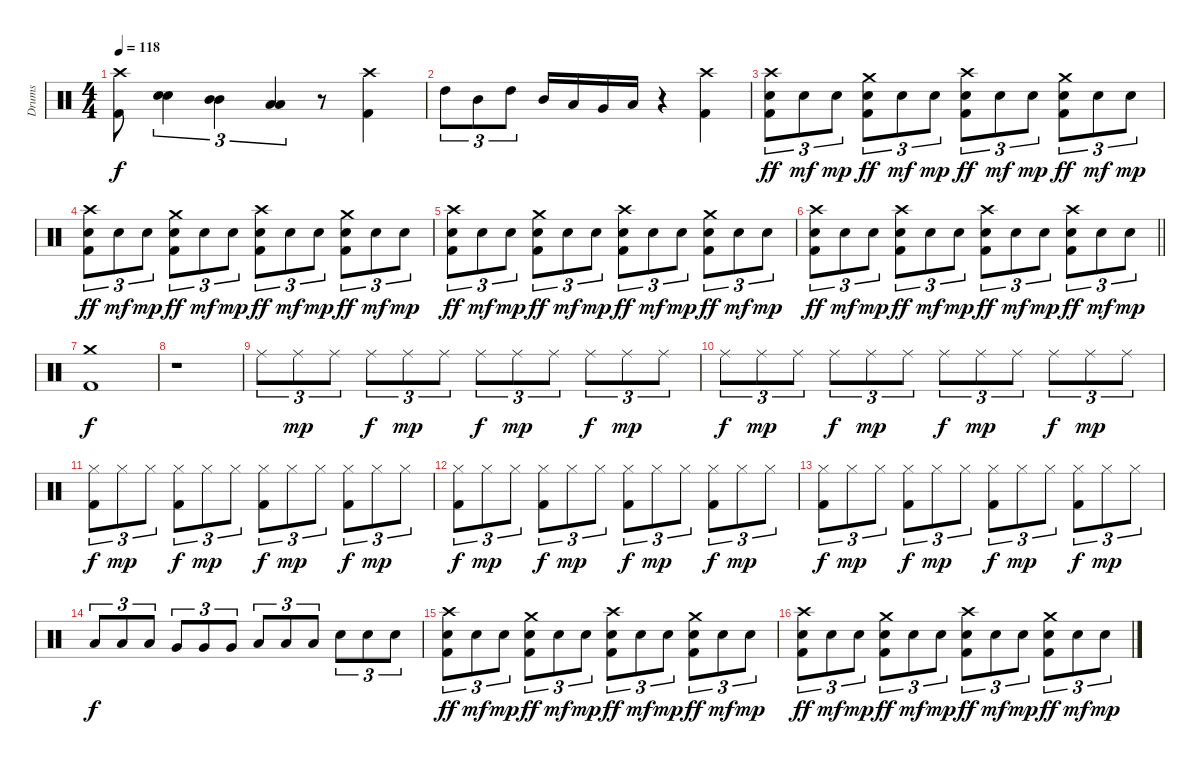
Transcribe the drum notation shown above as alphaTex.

\track ("Drums" "Drums") {instrument percussion}
\staff {score}
\articulation defaults
\ts (4 4)
\tempo 118
\clef neutral
\ks c
("Crash high (hit)" "Kick (hit) 2").8{dy f} ("Snare (hit) 2" "Snare (hit) 2").4{tu (3 2)} ("Mid Tom (hit)" "Mid Tom (hit)").4{tu (3 2)} ("Low Tom (hit)" "Low Tom (hit)").4{tu (3 2)} r.8 ("Crash high (hit)" "Kick (hit) 2").4 |
"High Tom (hit)".8{tu (3 2)} "Mid Tom (hit)".8{tu (3 2)} "High Tom (hit)".8{tu (3 2)} "Mid Tom (hit)".16 "Low Tom (hit)".16 "Very Low Tom (hit)".16 "Low Floor Tom (hit)".16 r.4 ("Crash high (hit)" "Kick (hit) 2").4 |
("Crash high (hit)" "Snare (hit) 2" "Kick (hit) 2").8{tu (3 2) dy ff} "Snare (hit) 2".8{tu (3 2) dy mf} "Snare (hit) 2".8{tu (3 2) dy mp} ("Crash medium (hit)" "Snare (hit) 2" "Kick (hit) 2").8{tu (3 2) dy ff} "Snare (hit) 2".8{tu (3 2) dy mf} "Snare (hit) 2".8{tu (3 2) dy mp} ("Crash high (hit)" "Snare (hit) 2" "Kick (hit) 2").8{tu (3 2) dy ff} "Snare (hit) 2".8{tu (3 2) dy mf} "Snare (hit) 2".8{tu (3 2) dy mp} ("Crash medium (hit)" "Snare (hit) 2" "Kick (hit) 2").8{tu (3 2) dy ff} "Snare (hit) 2".8{tu (3 2) dy mf} "Snare (hit) 2".8{tu (3 2) dy mp} |
("Crash high (hit)" "Snare (hit) 2" "Kick (hit) 2").8{tu (3 2) dy ff} "Snare (hit) 2".8{tu (3 2) dy mf} "Snare (hit) 2".8{tu (3 2) dy mp} ("Crash medium (hit)" "Snare (hit) 2" "Kick (hit) 2").8{tu (3 2) dy ff} "Snare (hit) 2".8{tu (3 2) dy mf} "Snare (hit) 2".8{tu (3 2) dy mp} ("Crash high (hit)" "Snare (hit) 2" "Kick (hit) 2").8{tu (3 2) dy ff} "Snare (hit) 2".8{tu (3 2) dy mf} "Snare (hit) 2".8{tu (3 2) dy mp} ("Crash medium (hit)" "Snare (hit) 2" "Kick (hit) 2").8{tu (3 2) dy ff} "Snare (hit) 2".8{tu (3 2) dy mf} "Snare (hit) 2".8{tu (3 2) dy mp} |
("Crash high (hit)" "Snare (hit) 2" "Kick (hit) 2").8{tu (3 2) dy ff} "Snare (hit) 2".8{tu (3 2) dy mf} "Snare (hit) 2".8{tu (3 2) dy mp} ("Crash medium (hit)" "Snare (hit) 2" "Kick (hit) 2").8{tu (3 2) dy ff} "Snare (hit) 2".8{tu (3 2) dy mf} "Snare (hit) 2".8{tu (3 2) dy mp} ("Crash high (hit)" "Snare (hit) 2" "Kick (hit) 2").8{tu (3 2) dy ff} "Snare (hit) 2".8{tu (3 2) dy mf} "Snare (hit) 2".8{tu (3 2) dy mp} ("Crash medium (hit)" "Snare (hit) 2" "Kick (hit) 2").8{tu (3 2) dy ff} "Snare (hit) 2".8{tu (3 2) dy mf} "Snare (hit) 2".8{tu (3 2) dy mp} |
\barLineRight lightlight
("Crash high (hit)" "Snare (hit) 2" "Kick (hit) 2").8{tu (3 2) dy ff} "Snare (hit) 2".8{tu (3 2) dy mf} "Snare (hit) 2".8{tu (3 2) dy mp} ("Crash high (hit)" "Snare (hit) 2" "Kick (hit) 2").8{tu (3 2) dy ff} "Snare (hit) 2".8{tu (3 2) dy mf} "Snare (hit) 2".8{tu (3 2) dy mp} ("Crash high (hit)" "Snare (hit) 2" "Kick (hit) 2").8{tu (3 2) dy ff} "Snare (hit) 2".8{tu (3 2) dy mf} "Snare (hit) 2".8{tu (3 2) dy mp} ("Crash high (hit)" "Snare (hit) 2" "Kick (hit) 2").8{tu (3 2) dy ff} "Snare (hit) 2".8{tu (3 2) dy mf} "Snare (hit) 2".8{tu (3 2) dy mp} |
("Crash medium (hit)" "Kick (hit) 2").1{dy f} |
r.1 |
"Ride (middle)".8{tu (3 2)} "Ride (middle)".8{tu (3 2) dy mp} "Ride (middle)".8{tu (3 2)} "Ride (middle)".8{tu (3 2) dy f} "Ride (middle)".8{tu (3 2) dy mp} "Ride (middle)".8{tu (3 2)} "Ride (middle)".8{tu (3 2) dy f} "Ride (middle)".8{tu (3 2) dy mp} "Ride (middle)".8{tu (3 2)} "Ride (middle)".8{tu (3 2) dy f} "Ride (middle)".8{tu (3 2) dy mp} "Ride (middle)".8{tu (3 2)} |
"Ride (middle)".8{tu (3 2) dy f} "Ride (middle)".8{tu (3 2) dy mp} "Ride (middle)".8{tu (3 2)} "Ride (middle)".8{tu (3 2) dy f} "Ride (middle)".8{tu (3 2) dy mp} "Ride (middle)".8{tu (3 2)} "Ride (middle)".8{tu (3 2) dy f} "Ride (middle)".8{tu (3 2) dy mp} "Ride (middle)".8{tu (3 2)} "Ride (middle)".8{tu (3 2) dy f} "Ride (middle)".8{tu (3 2) dy mp} "Ride (middle)".8{tu (3 2)} |
("Hi-Hat (closed)" "Kick (hit) 2").8{tu (3 2) dy f} "Hi-Hat (closed)".8{tu (3 2) dy mp} "Hi-Hat (closed)".8{tu (3 2)} ("Hi-Hat (closed)" "Kick (hit) 2").8{tu (3 2) dy f} "Hi-Hat (closed)".8{tu (3 2) dy mp} "Hi-Hat (closed)".8{tu (3 2)} ("Hi-Hat (closed)" "Kick (hit) 2").8{tu (3 2) dy f} "Hi-Hat (closed)".8{tu (3 2) dy mp} "Hi-Hat (closed)".8{tu (3 2)} ("Hi-Hat (closed)" "Kick (hit) 2").8{tu (3 2) dy f} "Hi-Hat (closed)".8{tu (3 2) dy mp} "Hi-Hat (closed)".8{tu (3 2)} |
("Hi-Hat (closed)" "Kick (hit) 2").8{tu (3 2) dy f} "Hi-Hat (closed)".8{tu (3 2) dy mp} "Hi-Hat (closed)".8{tu (3 2)} ("Hi-Hat (closed)" "Kick (hit) 2").8{tu (3 2) dy f} "Hi-Hat (closed)".8{tu (3 2) dy mp} "Hi-Hat (closed)".8{tu (3 2)} ("Hi-Hat (closed)" "Kick (hit) 2").8{tu (3 2) dy f} "Hi-Hat (closed)".8{tu (3 2) dy mp} "Hi-Hat (closed)".8{tu (3 2)} ("Hi-Hat (closed)" "Kick (hit) 2").8{tu (3 2) dy f} "Hi-Hat (closed)".8{tu (3 2) dy mp} "Hi-Hat (closed)".8{tu (3 2)} |
("Hi-Hat (closed)" "Kick (hit) 2").8{tu (3 2) dy f} "Hi-Hat (closed)".8{tu (3 2) dy mp} "Hi-Hat (closed)".8{tu (3 2)} ("Hi-Hat (closed)" "Kick (hit) 2").8{tu (3 2) dy f} "Hi-Hat (closed)".8{tu (3 2) dy mp} "Hi-Hat (closed)".8{tu (3 2)} ("Hi-Hat (closed)" "Kick (hit) 2").8{tu (3 2) dy f} "Hi-Hat (closed)".8{tu (3 2) dy mp} "Hi-Hat (closed)".8{tu (3 2)} ("Hi-Hat (closed)" "Kick (hit) 2").8{tu (3 2) dy f} "Hi-Hat (closed)".8{tu (3 2) dy mp} "Hi-Hat (closed)".8{tu (3 2)} |
"Low Tom (hit)".8{tu (3 2) dy f} "Low Tom (hit)".8{tu (3 2)} "Low Tom (hit)".8{tu (3 2)} "Very Low Tom (hit)".8{tu (3 2)} "Very Low Tom (hit)".8{tu (3 2)} "Very Low Tom (hit)".8{tu (3 2)} "Low Floor Tom (hit)".8{tu (3 2)} "Low Floor Tom (hit)".8{tu (3 2)} "Low Floor Tom (hit)".8{tu (3 2)} "Snare (hit) 2".8{tu (3 2)} "Snare (hit) 2".8{tu (3 2)} "Snare (hit) 2".8{tu (3 2)} |
("Crash high (hit)" "Snare (hit) 2" "Kick (hit) 2").8{tu (3 2) dy ff} "Snare (hit) 2".8{tu (3 2) dy mf} "Snare (hit) 2".8{tu (3 2) dy mp} ("Crash medium (hit)" "Snare (hit) 2" "Kick (hit) 2").8{tu (3 2) dy ff} "Snare (hit) 2".8{tu (3 2) dy mf} "Snare (hit) 2".8{tu (3 2) dy mp} ("Crash high (hit)" "Snare (hit) 2" "Kick (hit) 2").8{tu (3 2) dy ff} "Snare (hit) 2".8{tu (3 2) dy mf} "Snare (hit) 2".8{tu (3 2) dy mp} ("Crash medium (hit)" "Snare (hit) 2" "Kick (hit) 2").8{tu (3 2) dy ff} "Snare (hit) 2".8{tu (3 2) dy mf} "Snare (hit) 2".8{tu (3 2) dy mp} |
("Crash high (hit)" "Snare (hit) 2" "Kick (hit) 2").8{tu (3 2) dy ff} "Snare (hit) 2".8{tu (3 2) dy mf} "Snare (hit) 2".8{tu (3 2) dy mp} ("Crash medium (hit)" "Snare (hit) 2" "Kick (hit) 2").8{tu (3 2) dy ff} "Snare (hit) 2".8{tu (3 2) dy mf} "Snare (hit) 2".8{tu (3 2) dy mp} ("Crash high (hit)" "Snare (hit) 2" "Kick (hit) 2").8{tu (3 2) dy ff} "Snare (hit) 2".8{tu (3 2) dy mf} "Snare (hit) 2".8{tu (3 2) dy mp} ("Crash medium (hit)" "Snare (hit) 2" "Kick (hit) 2").8{tu (3 2) dy ff} "Snare (hit) 2".8{tu (3 2) dy mf} "Snare (hit) 2".8{tu (3 2) dy mp}
